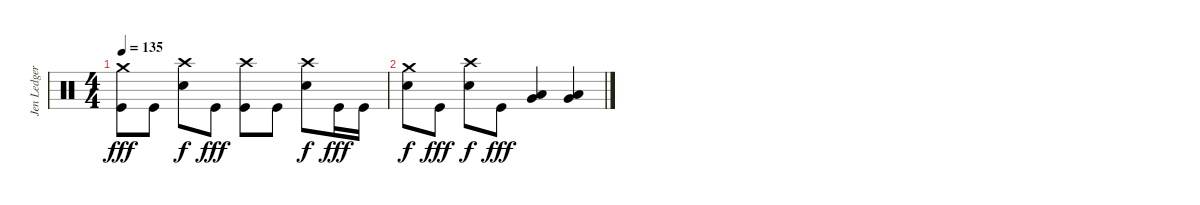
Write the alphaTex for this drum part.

\track ("Jen Ledger" "Jen Ledger") {instrument percussion}
\staff {score}
\articulation defaults
\ts (4 4)
\tempo 135
\clef neutral
\ks c
("Crash medium (hit)" "Kick (hit)").8{dy fff} "Kick (hit)".8 ("Crash high (hit)" "Snare (hit) 2").8{dy f} "Kick (hit)".8{dy fff} ("Crash high (hit)" "Kick (hit)").8 "Kick (hit)".8 ("Crash high (hit)" "Snare (hit) 2").8{dy f} "Kick (hit)".16{dy fff} "Kick (hit)".16 |
("Crash medium (hit)" "Snare (hit) 2").8{dy f} "Kick (hit)".8{dy fff} ("Crash high (hit)" "Snare (hit) 2").8{dy f} "Kick (hit)".8{dy fff} ("Low Tom (hit)" "Very Low Tom (hit)").4 ("Low Tom (hit)" "Very Low Tom (hit)").4
